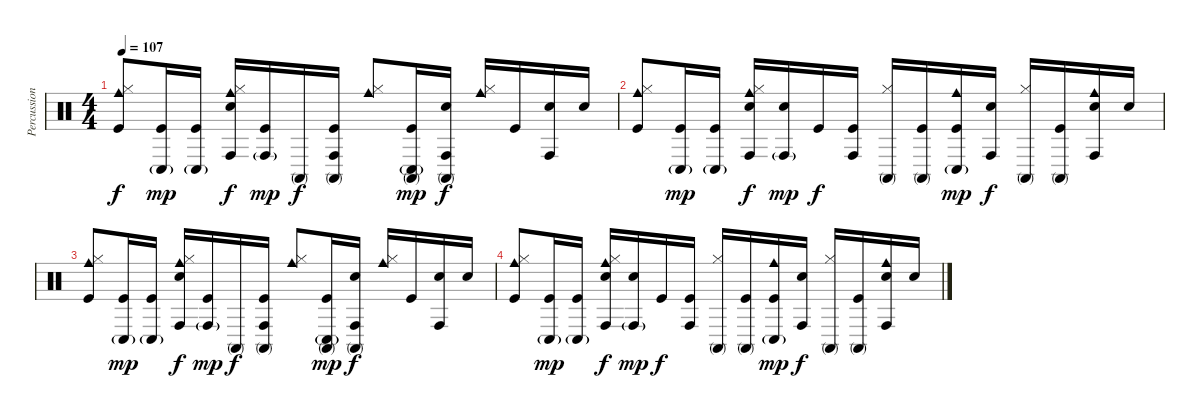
\track ("Percussion" "Percussion") {instrument percussion}
\staff {score}
\articulation defaults
\ts (4 4)
\tempo 107
\clef neutral
\ks c
("Hi-Hat (closed)" "Cowbell medium (hit)" "Kick (hit)").8{dy f} ("Conga low (hit)"{g} "Kick (hit)").16{dy mp} ("Conga low (hit)"{g} "Kick (hit)").16 ("Hi-Hat (closed)" "Cowbell medium (hit)" "Snare (hit) 2" "Conga high (hit)").16{dy f} ("Conga high (hit)"{g} "Kick (hit)").16{dy mp} "Conga high (mute)".16{dy f} ("Conga high (mute)" "Conga high (hit)" "Kick (hit)").16 ("Hi-Hat (closed)" "Cowbell medium (hit)").8 ("Conga high (mute)" "Conga low (hit)"{g} "Kick (hit)").16{dy mp} ("Conga high (mute)" "Snare (hit) 2" "Conga high (hit)").16{dy f} ("Hi-Hat (closed)" "Cowbell medium (hit)").16 "Kick (hit)".16 ("Snare (hit) 2" "Conga high (hit)").16 "Snare (hit) 2".16 |
("Hi-Hat (closed)" "Cowbell medium (hit)" "Kick (hit)").8{volume 0} ("Conga low (hit)"{g} "Kick (hit)").16{dy mp} ("Conga low (hit)"{g} "Kick (hit)").16 ("Hi-Hat (closed)" "Cowbell medium (hit)" "Snare (hit) 2" "Conga high (hit)").16{dy f} ("Snare (hit) 2" "Conga high (hit)"{g}).16{dy mp} "Kick (hit)".16{dy f} ("Conga high (hit)" "Kick (hit)").16 ("Hi-Hat (closed)" "Conga high (mute)").16 ("Conga high (mute)" "Kick (hit)").16 ("Cowbell medium (hit)" "Conga low (hit)"{g} "Kick (hit)").16{dy mp} ("Snare (hit) 2" "Conga high (hit)").16{dy f} ("Hi-Hat (closed)" "Conga high (mute)").16 ("Conga high (mute)" "Kick (hit)").16 ("Cowbell medium (hit)" "Snare (hit) 2" "Conga high (hit)").16 "Snare (hit) 2".16 |
("Hi-Hat (closed)" "Cowbell medium (hit)" "Kick (hit)").8 ("Conga low (hit)"{g} "Kick (hit)").16{dy mp} ("Conga low (hit)"{g} "Kick (hit)").16 ("Hi-Hat (closed)" "Cowbell medium (hit)" "Snare (hit) 2" "Conga high (hit)").16{dy f} ("Conga high (hit)"{g} "Kick (hit)").16{dy mp} "Conga high (mute)".16{dy f} ("Conga high (mute)" "Conga high (hit)" "Kick (hit)").16 ("Hi-Hat (closed)" "Cowbell medium (hit)").8 ("Conga high (mute)" "Conga low (hit)"{g} "Kick (hit)").16{dy mp} ("Conga high (mute)" "Snare (hit) 2" "Conga high (hit)").16{dy f} ("Hi-Hat (closed)" "Cowbell medium (hit)").16 "Kick (hit)".16 ("Snare (hit) 2" "Conga high (hit)").16 "Snare (hit) 2".16 |
("Hi-Hat (closed)" "Cowbell medium (hit)" "Kick (hit)").8 ("Conga low (hit)"{g} "Kick (hit)").16{dy mp} ("Conga low (hit)"{g} "Kick (hit)").16 ("Hi-Hat (closed)" "Cowbell medium (hit)" "Snare (hit) 2" "Conga high (hit)").16{dy f} ("Snare (hit) 2" "Conga high (hit)"{g}).16{dy mp} "Kick (hit)".16{dy f} ("Conga high (hit)" "Kick (hit)").16 ("Hi-Hat (closed)" "Conga high (mute)").16 ("Conga high (mute)" "Kick (hit)").16 ("Cowbell medium (hit)" "Conga low (hit)"{g} "Kick (hit)").16{dy mp} ("Snare (hit) 2" "Conga high (hit)").16{dy f} ("Hi-Hat (closed)" "Conga high (mute)").16 ("Conga high (mute)" "Kick (hit)").16 ("Cowbell medium (hit)" "Snare (hit) 2" "Conga high (hit)").16 "Snare (hit) 2".16
